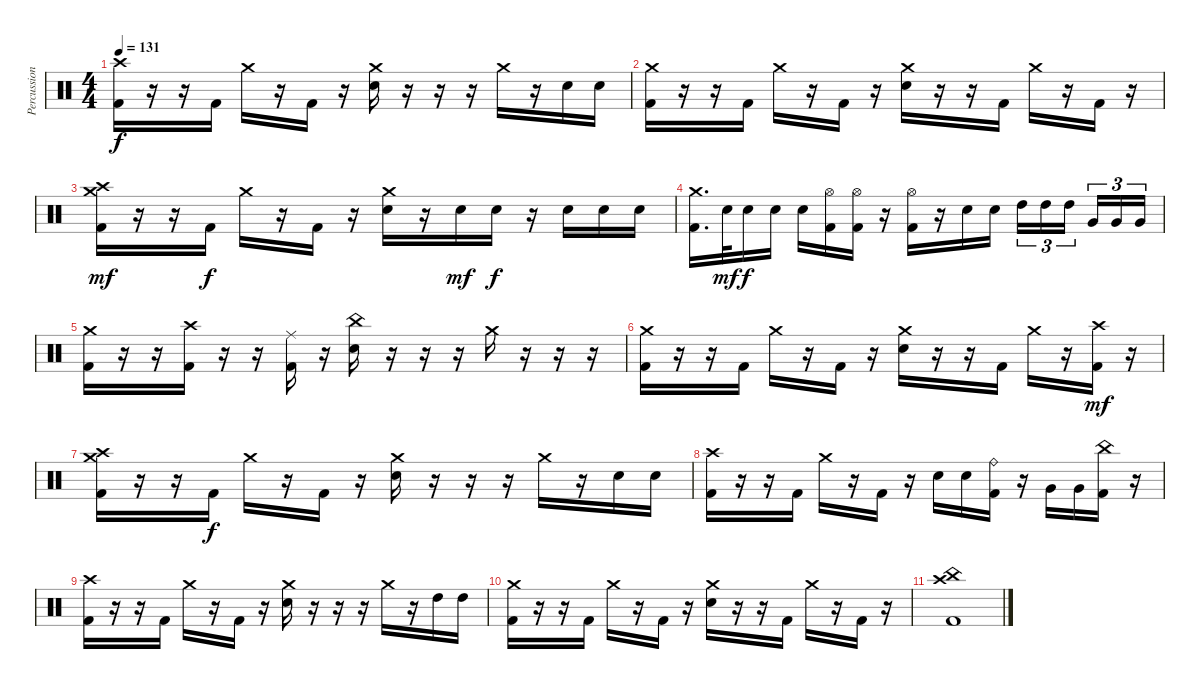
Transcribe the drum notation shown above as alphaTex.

\track ("Percussion" "Percussion") {instrument percussion}
\staff {score}
\articulation defaults
\ts (4 4)
\tempo 131
\clef neutral
\ks c
("Crash high (hit)" "Kick (hit) 2").16{dy f} r.16 r.16 "Kick (hit) 2".16 "Crash medium (hit)".16 r.16 "Kick (hit) 2".16 r.16 ("Crash medium (hit)" "Snare (hit) 2").16 r.16 r.16 r.16 "Crash medium (hit)".16 r.16 "Snare (hit) 2".16 "Snare (hit) 2".16 |
("Crash medium (hit)" "Kick (hit) 2").16 r.16 r.16 "Kick (hit) 2".16 "Crash medium (hit)".16 r.16 "Kick (hit) 2".16 r.16 ("Crash medium (hit)" "Snare (hit) 2").16 r.16 r.16 "Kick (hit) 2".16 "Crash medium (hit)".16 r.16 "Kick (hit) 2".16 r.16 |
("Crash medium (hit)" "Crash high (hit)" "Kick (hit) 2").16{dy mf} r.16 r.16 "Kick (hit) 2".16{dy f} "Crash medium (hit)".16 r.16 "Kick (hit) 2".16 r.16 ("Crash medium (hit)" "Snare (hit) 2").16 r.16 "Snare (hit) 2".16{dy mf} "Snare (hit) 2".16{dy f} r.16 "Snare (hit) 2".16 "Snare (hit) 2".16 "Snare (hit) 2".16 |
("Crash medium (hit)" "Kick (hit) 2").16{d} "Snare (hit) 2".32{dy mf} "Snare (hit) 2".16{dy f} "Snare (hit) 2".16 "Snare (hit) 2".16 ("Hi-Hat (open)" "Kick (hit) 2").16 ("Hi-Hat (open)" "Kick (hit) 2").16 r.16 ("Hi-Hat (open)" "Kick (hit) 2").16 r.16 "Snare (hit) 2".16 "Snare (hit) 2".16 "High Tom (hit)".16{tu (3 2)} "High Tom (hit)".16{tu (3 2)} "High Tom (hit)".16{tu (3 2) beam splitsecondary} "Very Low Tom (hit)".16{tu (3 2)} "Very Low Tom (hit)".16{tu (3 2)} "Very Low Tom (hit)".16{tu (3 2)} |
("Crash medium (hit)" "Kick (hit) 2").16 r.16 r.16 ("Crash high (hit)" "Kick (hit) 2").16 r.16 r.16 ("Ride (middle)" "Kick (hit) 2").16 r.16 ("China (hit)" "Snare (hit) 2").16 r.16 r.16 r.16 "Crash medium (hit)".16 r.16 r.16 r.16 |
("Crash medium (hit)" "Kick (hit) 2").16 r.16 r.16 "Kick (hit) 2".16 "Crash medium (hit)".16 r.16 "Kick (hit) 2".16 r.16 ("Crash medium (hit)" "Snare (hit) 2").16 r.16 r.16 "Kick (hit) 2".16 "Crash medium (hit)".16 r.16 ("Crash high (hit)" "Kick (hit) 2").16{dy mf} r.16 |
("Crash medium (hit)" "Crash high (hit)" "Kick (hit) 2").16 r.16 r.16 "Kick (hit) 2".16{dy f} "Crash medium (hit)".16 r.16 "Kick (hit) 2".16 r.16 ("Crash medium (hit)" "Snare (hit) 2").16 r.16 r.16 r.16 "Crash medium (hit)".16 r.16 "Snare (hit) 2".16 "Snare (hit) 2".16 |
("Crash high (hit)" "Kick (hit) 2").16 r.16 r.16 "Kick (hit) 2".16 "Crash medium (hit)".16 r.16 "Kick (hit) 2".16 r.16 "Snare (hit) 2".16 "Snare (hit) 2".16 ("Ride (bell)" "Kick (hit) 2").16 r.16 "Very Low Tom (hit)".16 "Very Low Tom (hit)".16 ("China (hit)" "Kick (hit) 2").16 r.16 |
("Crash high (hit)" "Kick (hit) 2").16 r.16 r.16 "Kick (hit) 2".16 "Crash medium (hit)".16 r.16 "Kick (hit) 2".16 r.16 ("Crash medium (hit)" "Snare (hit) 2").16 r.16 r.16 r.16 "Crash medium (hit)".16 r.16 "High Tom (hit)".16 "High Tom (hit)".16 |
("Crash medium (hit)" "Kick (hit) 2").16 r.16 r.16 "Kick (hit) 2".16 "Crash medium (hit)".16 r.16 "Kick (hit) 2".16 r.16 ("Crash medium (hit)" "Snare (hit) 2").16 r.16 r.16 "Kick (hit) 2".16 "Crash medium (hit)".16 r.16 "Kick (hit) 2".16 r.16 |
("China (hit)" "Crash high (hit)" "Kick (hit) 2").1
